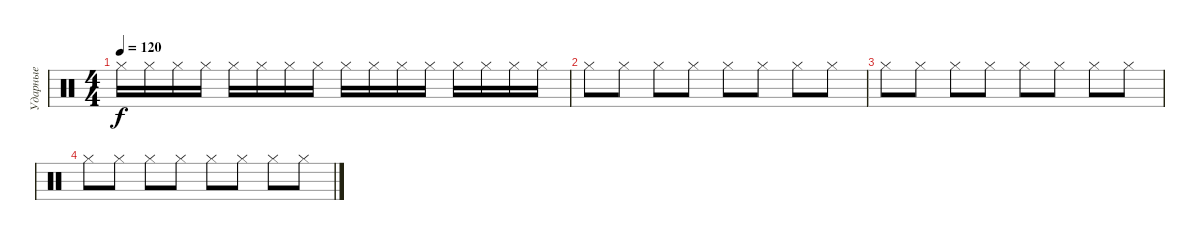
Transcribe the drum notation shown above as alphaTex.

\track ("Ударные" "Ударные") {instrument percussion}
\staff {score}
\articulation defaults
\ts (4 4)
\tempo 120
\clef neutral
\ks c "Hi-Hat (closed)".16{dy f} "Hi-Hat (closed)".16 "Hi-Hat (closed)".16 "Hi-Hat (closed)".16 "Hi-Hat (closed)".16 "Hi-Hat (closed)".16 "Hi-Hat (closed)".16 "Hi-Hat (closed)".16 "Hi-Hat (closed)".16 "Hi-Hat (closed)".16 "Hi-Hat (closed)".16 "Hi-Hat (closed)".16 "Hi-Hat (closed)".16 "Hi-Hat (closed)".16 "Hi-Hat (closed)".16 "Hi-Hat (closed)".16
|
"Hi-Hat (closed)".8 "Hi-Hat (closed)".8 "Hi-Hat (closed)".8 "Hi-Hat (closed)".8 "Hi-Hat (closed)".8 "Hi-Hat (closed)".8 "Hi-Hat (closed)".8 "Hi-Hat (closed)".8 |
"Hi-Hat (closed)".8 "Hi-Hat (closed)".8 "Hi-Hat (closed)".8 "Hi-Hat (closed)".8 "Hi-Hat (closed)".8 "Hi-Hat (closed)".8 "Hi-Hat (closed)".8 "Hi-Hat (closed)".8 |
"Hi-Hat (closed)".8 "Hi-Hat (closed)".8 "Hi-Hat (closed)".8 "Hi-Hat (closed)".8 "Hi-Hat (closed)".8 "Hi-Hat (closed)".8 "Hi-Hat (closed)".8 "Hi-Hat (closed)".8
